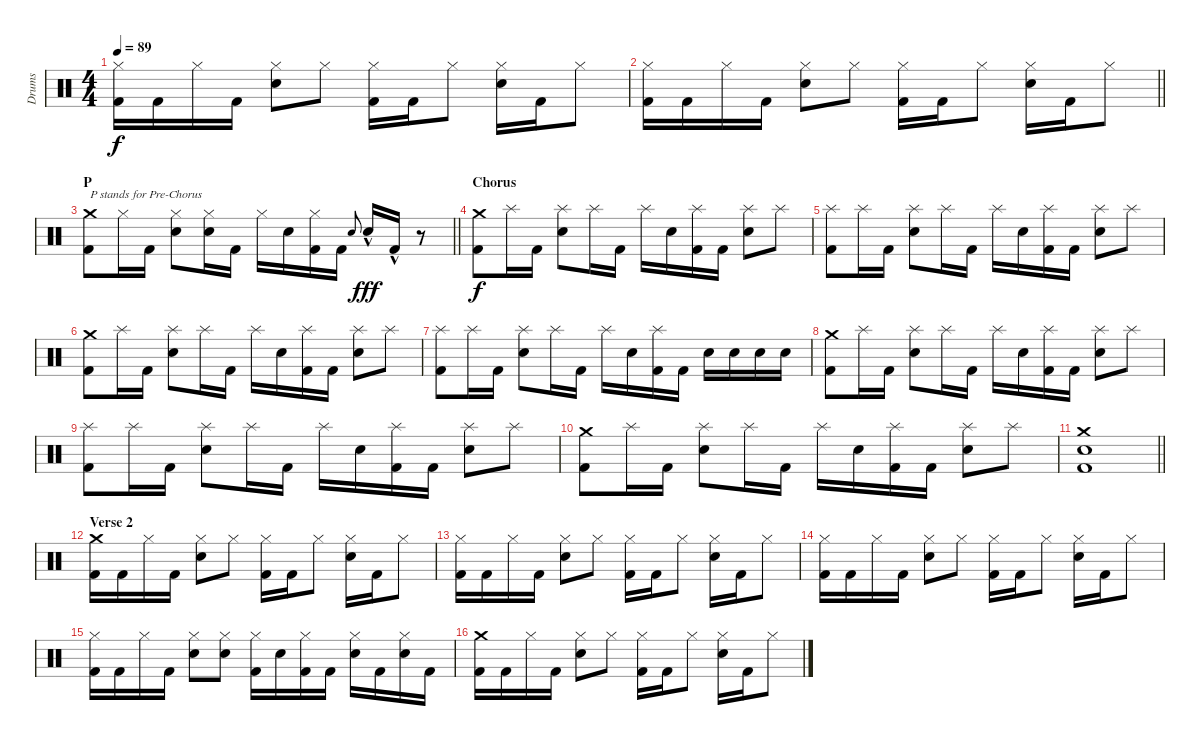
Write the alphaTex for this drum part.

\track ("Drums" "Drums") {instrument percussion}
\staff {score}
\articulation defaults
\ts (4 4)
\tempo 89
\clef neutral
\ks c
("Hi-Hat (closed)" "Kick (hit) 2").16{dy f} "Kick (hit) 2".16 "Hi-Hat (closed)".16 "Kick (hit) 2".16 ("Hi-Hat (closed)" "Electric Snare (hit)").8 "Hi-Hat (closed)".8 ("Hi-Hat (closed)" "Kick (hit) 2").16 "Kick (hit) 2".16 "Hi-Hat (closed)".8 ("Hi-Hat (closed)" "Electric Snare (hit)").16 "Kick (hit) 2".16 "Hi-Hat (closed)".8 |
\barLineRight lightlight
("Hi-Hat (closed)" "Kick (hit) 2").16 "Kick (hit) 2".16 "Hi-Hat (closed)".16 "Kick (hit) 2".16 ("Hi-Hat (closed)" "Electric Snare (hit)").8 "Hi-Hat (closed)".8 ("Hi-Hat (closed)" "Kick (hit) 2").16 "Kick (hit) 2".16 "Hi-Hat (closed)".8 ("Hi-Hat (closed)" "Electric Snare (hit)").16 "Kick (hit) 2".16 "Hi-Hat (closed)".8 |
\section ("" "P")
\barLineRight lightlight
("Crash medium (hit)" "Kick (hit) 2").8{txt "P stands for Pre-Chorus"} "Hi-Hat (closed)".16 "Kick (hit) 2".16 ("Hi-Hat (closed)" "Electric Snare (hit)").8 ("Hi-Hat (closed)" "Electric Snare (hit)").16 "Kick (hit) 2".16 "Hi-Hat (closed)".16 "Electric Snare (hit)".16 ("Hi-Hat (closed)" "Kick (hit) 2").16 "Kick (hit) 2".16 "Electric Snare (hit)".8{gr onbeat} "Electric Snare (hit)"{hac}.16{dy fff} "Kick (hit) 2"{hac}.16 r.8 |
\section ("" "Chorus")
("Crash medium (hit)" "Kick (hit) 2").8{dy f} "Splash (hit)".16 "Kick (hit) 2".16 ("Splash (hit)" "Electric Snare (hit)").8 "Splash (hit)".16 "Kick (hit) 2".16 "Splash (hit)".16 "Electric Snare (hit)".16 ("Splash (hit)" "Kick (hit) 2").16 "Kick (hit) 2".16 ("Splash (hit)" "Electric Snare (hit)").8 "Splash (hit)".8 |
("Splash (hit)" "Kick (hit) 2").8 "Splash (hit)".16 "Kick (hit) 2".16 ("Splash (hit)" "Electric Snare (hit)").8 "Splash (hit)".16 "Kick (hit) 2".16 "Splash (hit)".16 "Electric Snare (hit)".16 ("Splash (hit)" "Kick (hit) 2").16 "Kick (hit) 2".16 ("Splash (hit)" "Electric Snare (hit)").8 "Splash (hit)".8 |
("Crash medium (hit)" "Kick (hit) 2").8 "Splash (hit)".16 "Kick (hit) 2".16 ("Splash (hit)" "Electric Snare (hit)").8 "Splash (hit)".16 "Kick (hit) 2".16 "Splash (hit)".16 "Electric Snare (hit)".16 ("Splash (hit)" "Kick (hit) 2").16 "Kick (hit) 2".16 ("Splash (hit)" "Electric Snare (hit)").8 "Splash (hit)".8 |
("Splash (hit)" "Kick (hit) 2").8 "Splash (hit)".16 "Kick (hit) 2".16 ("Splash (hit)" "Electric Snare (hit)").8 "Splash (hit)".16 "Kick (hit) 2".16 "Splash (hit)".16 "Electric Snare (hit)".16 ("Splash (hit)" "Kick (hit) 2").16 "Kick (hit) 2".16 "Electric Snare (hit)".16 "Electric Snare (hit)".16 "Electric Snare (hit)".16 "Electric Snare (hit)".16 |
("Crash medium (hit)" "Kick (hit) 2").8 "Splash (hit)".16 "Kick (hit) 2".16 ("Splash (hit)" "Electric Snare (hit)").8 "Splash (hit)".16 "Kick (hit) 2".16 "Splash (hit)".16 "Electric Snare (hit)".16 ("Splash (hit)" "Kick (hit) 2").16 "Kick (hit) 2".16 ("Splash (hit)" "Electric Snare (hit)").8 "Splash (hit)".8 |
("Splash (hit)" "Kick (hit) 2").8 "Splash (hit)".16 "Kick (hit) 2".16 ("Splash (hit)" "Electric Snare (hit)").8 "Splash (hit)".16 "Kick (hit) 2".16 "Splash (hit)".16 "Electric Snare (hit)".16 ("Splash (hit)" "Kick (hit) 2").16 "Kick (hit) 2".16 ("Splash (hit)" "Electric Snare (hit)").8 "Splash (hit)".8 |
("Crash medium (hit)" "Kick (hit) 2").8 "Splash (hit)".16 "Kick (hit) 2".16 ("Splash (hit)" "Electric Snare (hit)").8 "Splash (hit)".16 "Kick (hit) 2".16 "Splash (hit)".16 "Electric Snare (hit)".16 ("Splash (hit)" "Kick (hit) 2").16 "Kick (hit) 2".16 ("Splash (hit)" "Electric Snare (hit)").8 "Splash (hit)".8 |
\barLineRight lightlight
("Crash medium (hit)" "Electric Snare (hit)" "Kick (hit) 2").1 |
\section ("" "Verse 2")
("Crash medium (hit)" "Kick (hit) 2").16 "Kick (hit) 2".16 "Hi-Hat (closed)".16 "Kick (hit) 2".16 ("Hi-Hat (closed)" "Electric Snare (hit)").8 "Hi-Hat (closed)".8 ("Hi-Hat (closed)" "Kick (hit) 2").16 "Kick (hit) 2".16 "Hi-Hat (closed)".8 ("Hi-Hat (closed)" "Electric Snare (hit)").16 "Kick (hit) 2".16 "Hi-Hat (closed)".8 |
("Hi-Hat (closed)" "Kick (hit) 2").16 "Kick (hit) 2".16 "Hi-Hat (closed)".16 "Kick (hit) 2".16 ("Hi-Hat (closed)" "Electric Snare (hit)").8 "Hi-Hat (closed)".8 ("Hi-Hat (closed)" "Kick (hit) 2").16 "Kick (hit) 2".16 "Hi-Hat (closed)".8 ("Hi-Hat (closed)" "Electric Snare (hit)").16 "Kick (hit) 2".16 "Hi-Hat (closed)".8 |
("Hi-Hat (closed)" "Kick (hit) 2").16 "Kick (hit) 2".16 "Hi-Hat (closed)".16 "Kick (hit) 2".16 ("Hi-Hat (closed)" "Electric Snare (hit)").8 "Hi-Hat (closed)".8 ("Hi-Hat (closed)" "Kick (hit) 2").16 "Kick (hit) 2".16 "Hi-Hat (closed)".8 ("Hi-Hat (closed)" "Electric Snare (hit)").16 "Kick (hit) 2".16 "Hi-Hat (closed)".8 |
("Hi-Hat (closed)" "Kick (hit) 2").16 "Kick (hit) 2".16 "Hi-Hat (closed)".16 "Kick (hit) 2".16 ("Hi-Hat (closed)" "Electric Snare (hit)").8 ("Hi-Hat (closed)" "Electric Snare (hit)").8 ("Hi-Hat (closed)" "Kick (hit) 2").16 "Electric Snare (hit)".16 ("Hi-Hat (closed)" "Kick (hit) 2").16 "Kick (hit) 2".16 ("Hi-Hat (closed)" "Electric Snare (hit)").16 "Kick (hit) 2".16 ("Hi-Hat (closed)" "Electric Snare (hit)").16 "Kick (hit) 2".16 |
("Crash medium (hit)" "Kick (hit) 2").16 "Kick (hit) 2".16 "Hi-Hat (closed)".16 "Kick (hit) 2".16 ("Hi-Hat (closed)" "Electric Snare (hit)").8 "Hi-Hat (closed)".8 ("Hi-Hat (closed)" "Kick (hit) 2").16 "Kick (hit) 2".16 "Hi-Hat (closed)".8 ("Hi-Hat (closed)" "Electric Snare (hit)").16 "Kick (hit) 2".16 "Hi-Hat (closed)".8
